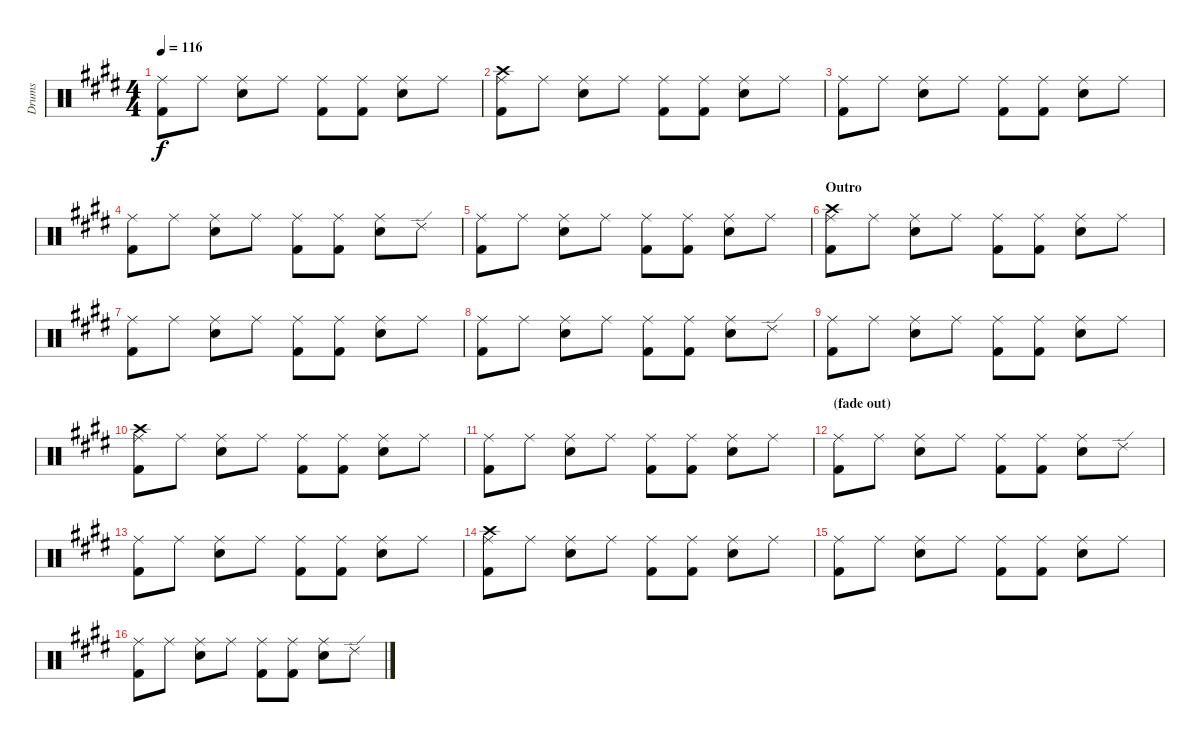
\track ("Drums" "Drums") {instrument percussion}
\staff {score}
\articulation defaults
\ts (4 4)
\tempo 116
\clef neutral
\ks c#minor
("Ride (middle)" "Kick (hit) 2").8{dy f} "Ride (middle)".8 ("Ride (middle)" "Snare (hit) 2").8 "Ride (middle)".8 ("Ride (middle)" "Kick (hit) 2").8 ("Ride (middle)" "Kick (hit) 2").8 ("Ride (middle)" "Snare (hit) 2").8 "Ride (middle)".8 |
("Ride (middle)" "Crash high (hit)" "Kick (hit) 2").8 "Ride (middle)".8 ("Ride (middle)" "Snare (hit) 2").8 "Ride (middle)".8 ("Ride (middle)" "Kick (hit) 2").8 ("Ride (middle)" "Kick (hit) 2").8 ("Ride (middle)" "Snare (hit) 2").8 "Ride (middle)".8 |
("Ride (middle)" "Kick (hit) 2").8 "Ride (middle)".8 ("Ride (middle)" "Snare (hit) 2").8 "Ride (middle)".8 ("Ride (middle)" "Kick (hit) 2").8 ("Ride (middle)" "Kick (hit) 2").8 ("Ride (middle)" "Snare (hit) 2").8 "Ride (middle)".8 |
("Ride (middle)" "Kick (hit) 2").8 "Ride (middle)".8 ("Ride (middle)" "Snare (hit) 2").8 "Ride (middle)".8 ("Ride (middle)" "Kick (hit) 2").8 ("Ride (middle)" "Kick (hit) 2").8 ("Ride (middle)" "Snare (hit) 2").8 "Ride (edge) 2".8 |
("Ride (middle)" "Kick (hit) 2").8 "Ride (middle)".8 ("Ride (middle)" "Snare (hit) 2").8 "Ride (middle)".8 ("Ride (middle)" "Kick (hit) 2").8 ("Ride (middle)" "Kick (hit) 2").8 ("Ride (middle)" "Snare (hit) 2").8 "Ride (middle)".8 |
\section ("" "Outro")
("Ride (middle)" "Crash high (hit)" "Kick (hit) 2").8 "Ride (middle)".8 ("Ride (middle)" "Snare (hit) 2").8 "Ride (middle)".8 ("Ride (middle)" "Kick (hit) 2").8 ("Ride (middle)" "Kick (hit) 2").8 ("Ride (middle)" "Snare (hit) 2").8 "Ride (middle)".8 |
("Ride (middle)" "Kick (hit) 2").8 "Ride (middle)".8 ("Ride (middle)" "Snare (hit) 2").8 "Ride (middle)".8 ("Ride (middle)" "Kick (hit) 2").8 ("Ride (middle)" "Kick (hit) 2").8 ("Ride (middle)" "Snare (hit) 2").8 "Ride (middle)".8 |
("Ride (middle)" "Kick (hit) 2").8 "Ride (middle)".8 ("Ride (middle)" "Snare (hit) 2").8 "Ride (middle)".8 ("Ride (middle)" "Kick (hit) 2").8 ("Ride (middle)" "Kick (hit) 2").8 ("Ride (middle)" "Snare (hit) 2").8 "Ride (edge) 2".8 |
("Ride (middle)" "Kick (hit) 2").8 "Ride (middle)".8 ("Ride (middle)" "Snare (hit) 2").8 "Ride (middle)".8 ("Ride (middle)" "Kick (hit) 2").8 ("Ride (middle)" "Kick (hit) 2").8 ("Ride (middle)" "Snare (hit) 2").8 "Ride (middle)".8 |
("Ride (middle)" "Crash high (hit)" "Kick (hit) 2").8 "Ride (middle)".8 ("Ride (middle)" "Snare (hit) 2").8 "Ride (middle)".8 ("Ride (middle)" "Kick (hit) 2").8 ("Ride (middle)" "Kick (hit) 2").8 ("Ride (middle)" "Snare (hit) 2").8 "Ride (middle)".8 |
("Ride (middle)" "Kick (hit) 2").8 "Ride (middle)".8 ("Ride (middle)" "Snare (hit) 2").8 "Ride (middle)".8 ("Ride (middle)" "Kick (hit) 2").8 ("Ride (middle)" "Kick (hit) 2").8 ("Ride (middle)" "Snare (hit) 2").8 "Ride (middle)".8 |
\section ("" "(fade out)")
("Ride (middle)" "Kick (hit) 2").8{volume 6} "Ride (middle)".8 ("Ride (middle)" "Snare (hit) 2").8 "Ride (middle)".8 ("Ride (middle)" "Kick (hit) 2").8 ("Ride (middle)" "Kick (hit) 2").8 ("Ride (middle)" "Snare (hit) 2").8 "Ride (edge) 2".8 |
("Ride (middle)" "Kick (hit) 2").8 "Ride (middle)".8 ("Ride (middle)" "Snare (hit) 2").8 "Ride (middle)".8 ("Ride (middle)" "Kick (hit) 2").8 ("Ride (middle)" "Kick (hit) 2").8 ("Ride (middle)" "Snare (hit) 2").8 "Ride (middle)".8 |
("Ride (middle)" "Crash high (hit)" "Kick (hit) 2").8 "Ride (middle)".8 ("Ride (middle)" "Snare (hit) 2").8 "Ride (middle)".8 ("Ride (middle)" "Kick (hit) 2").8 ("Ride (middle)" "Kick (hit) 2").8 ("Ride (middle)" "Snare (hit) 2").8 "Ride (middle)".8 |
("Ride (middle)" "Kick (hit) 2").8 "Ride (middle)".8 ("Ride (middle)" "Snare (hit) 2").8 "Ride (middle)".8 ("Ride (middle)" "Kick (hit) 2").8 ("Ride (middle)" "Kick (hit) 2").8 ("Ride (middle)" "Snare (hit) 2").8 "Ride (middle)".8 |
("Ride (middle)" "Kick (hit) 2").8{volume 2} "Ride (middle)".8 ("Ride (middle)" "Snare (hit) 2").8 "Ride (middle)".8 ("Ride (middle)" "Kick (hit) 2").8 ("Ride (middle)" "Kick (hit) 2").8 ("Ride (middle)" "Snare (hit) 2").8 "Ride (edge) 2".8
